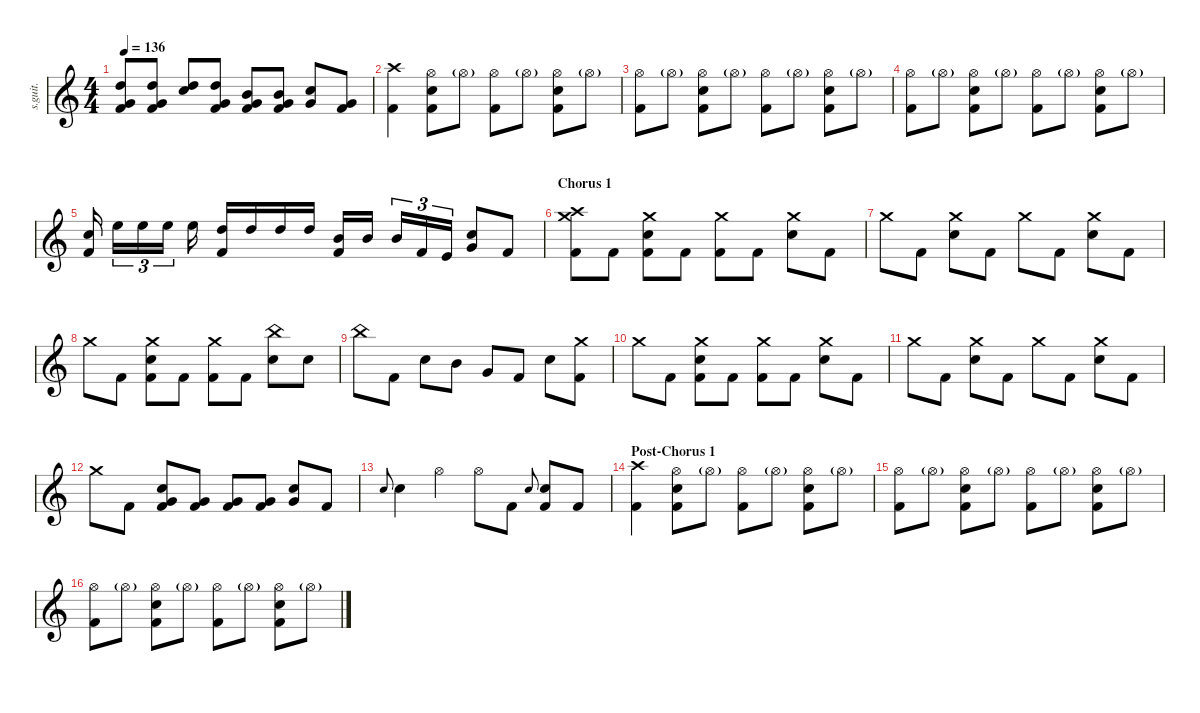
\defaultSystemsLayout 4
\hideDynamics
\bracketExtendMode nobrackets
\track ("Joey Jordison" "s.guit.") {instrument percussion}
\staff {score}
\articulation defaults
\ts (4 4)
\tempo 136
\clef g2
\ks c
("Kick (hit) 2" "High Tom (hit)" "Very Low Tom (hit)").8{lyrics (0 "") lyrics (1 "") lyrics (2 "") lyrics (3 "") lyrics (4 "") dy fff} ("Kick (hit) 2" "High Tom (hit)" "Very Low Tom (hit)").8{lyrics (0 "") lyrics (1 "") lyrics (2 "") lyrics (3 "") lyrics (4 "")} ("Snare (hit) 2" "High Tom (hit)").8{lyrics (0 "") lyrics (1 "") lyrics (2 "") lyrics (3 "") lyrics (4 "")} ("Kick (hit) 2" "High Tom (hit)" "Very Low Tom (hit)").8{lyrics (0 "") lyrics (1 "") lyrics (2 "") lyrics (3 "") lyrics (4 "")} ("Kick (hit) 2" "Mid Tom (hit)" "Very Low Tom (hit)").8{lyrics (0 "") lyrics (1 "") lyrics (2 "") lyrics (3 "") lyrics (4 "")} ("Kick (hit) 2" "Mid Tom (hit)" "Very Low Tom (hit)").8{lyrics (0 "") lyrics (1 "") lyrics (2 "") lyrics (3 "") lyrics (4 "")} ("Snare (hit) 2" "Very Low Tom (hit)").8{lyrics (0 "") lyrics (1 "") lyrics (2 "") lyrics (3 "") lyrics (4 "")} ("Kick (hit) 2" "Very Low Tom (hit)").8{lyrics (0 "") lyrics (1 "") lyrics (2 "") lyrics (3 "") lyrics (4 "")} |
("Crash high (hit)" "Kick (hit) 2").4{lyrics (0 "") lyrics (1 "") lyrics (2 "") lyrics (3 "") lyrics (4 "")} ("Hi-Hat (open)" "Kick (hit) 2" "Snare (hit) 2").8{lyrics (0 "") lyrics (1 "") lyrics (2 "") lyrics (3 "") lyrics (4 "")} "Hi-Hat (open)"{g}.8{lyrics (0 "") lyrics (1 "") lyrics (2 "") lyrics (3 "") lyrics (4 "")} ("Hi-Hat (open)" "Kick (hit) 2").8{lyrics (0 "") lyrics (1 "") lyrics (2 "") lyrics (3 "") lyrics (4 "")} "Hi-Hat (open)"{g}.8{lyrics (0 "") lyrics (1 "") lyrics (2 "") lyrics (3 "") lyrics (4 "")} ("Hi-Hat (open)" "Kick (hit) 2" "Snare (hit) 2").8{lyrics (0 "") lyrics (1 "") lyrics (2 "") lyrics (3 "") lyrics (4 "")} "Hi-Hat (open)"{g}.8{lyrics (0 "") lyrics (1 "") lyrics (2 "") lyrics (3 "") lyrics (4 "")} |
("Hi-Hat (open)" "Kick (hit) 2").8{lyrics (0 "") lyrics (1 "") lyrics (2 "") lyrics (3 "") lyrics (4 "")} "Hi-Hat (open)"{g}.8{lyrics (0 "") lyrics (1 "") lyrics (2 "") lyrics (3 "") lyrics (4 "")} ("Hi-Hat (open)" "Kick (hit) 2" "Snare (hit) 2").8{lyrics (0 "") lyrics (1 "") lyrics (2 "") lyrics (3 "") lyrics (4 "")} "Hi-Hat (open)"{g}.8{lyrics (0 "") lyrics (1 "") lyrics (2 "") lyrics (3 "") lyrics (4 "")} ("Hi-Hat (open)" "Kick (hit) 2").8{lyrics (0 "") lyrics (1 "") lyrics (2 "") lyrics (3 "") lyrics (4 "")} "Hi-Hat (open)"{g}.8{lyrics (0 "") lyrics (1 "") lyrics (2 "") lyrics (3 "") lyrics (4 "")} ("Hi-Hat (open)" "Kick (hit) 2" "Snare (hit) 2").8{lyrics (0 "") lyrics (1 "") lyrics (2 "") lyrics (3 "") lyrics (4 "")} "Hi-Hat (open)"{g}.8{lyrics (0 "") lyrics (1 "") lyrics (2 "") lyrics (3 "") lyrics (4 "")} |
("Hi-Hat (open)" "Kick (hit) 2").8{lyrics (0 "") lyrics (1 "") lyrics (2 "") lyrics (3 "") lyrics (4 "")} "Hi-Hat (open)"{g}.8{lyrics (0 "") lyrics (1 "") lyrics (2 "") lyrics (3 "") lyrics (4 "")} ("Hi-Hat (open)" "Kick (hit) 2" "Snare (hit) 2").8{lyrics (0 "") lyrics (1 "") lyrics (2 "") lyrics (3 "") lyrics (4 "")} "Hi-Hat (open)"{g}.8{lyrics (0 "") lyrics (1 "") lyrics (2 "") lyrics (3 "") lyrics (4 "")} ("Hi-Hat (open)" "Kick (hit) 2").8{lyrics (0 "") lyrics (1 "") lyrics (2 "") lyrics (3 "") lyrics (4 "")} "Hi-Hat (open)"{g}.8{lyrics (0 "") lyrics (1 "") lyrics (2 "") lyrics (3 "") lyrics (4 "")} ("Hi-Hat (open)" "Kick (hit) 2" "Snare (hit) 2").8{lyrics (0 "") lyrics (1 "") lyrics (2 "") lyrics (3 "") lyrics (4 "")} "Hi-Hat (open)"{g}.8{lyrics (0 "") lyrics (1 "") lyrics (2 "") lyrics (3 "") lyrics (4 "")} |
("Snare (hit) 2" "Kick (hit) 2").16{lyrics (0 "") lyrics (1 "") lyrics (2 "") lyrics (3 "") lyrics (4 "")} "High Floor Tom (hit)".16{tu (3 2) lyrics (0 "") lyrics (1 "") lyrics (2 "") lyrics (3 "") lyrics (4 "")} "High Floor Tom (hit)".16{tu (3 2) lyrics (0 "") lyrics (1 "") lyrics (2 "") lyrics (3 "") lyrics (4 "")} "High Floor Tom (hit)".16{tu (3 2) lyrics (0 "") lyrics (1 "") lyrics (2 "") lyrics (3 "") lyrics (4 "")} "High Floor Tom (hit)".16{lyrics (0 "") lyrics (1 "") lyrics (2 "") lyrics (3 "") lyrics (4 "")} ("High Tom (hit)" "Kick (hit) 2").16{lyrics (0 "") lyrics (1 "") lyrics (2 "") lyrics (3 "") lyrics (4 "")} "High Tom (hit)".16{lyrics (0 "") lyrics (1 "") lyrics (2 "") lyrics (3 "") lyrics (4 "")} "High Tom (hit)".16{lyrics (0 "") lyrics (1 "") lyrics (2 "") lyrics (3 "") lyrics (4 "")} "High Tom (hit)".16{lyrics (0 "") lyrics (1 "") lyrics (2 "") lyrics (3 "") lyrics (4 "")} ("Kick (hit) 2" "Mid Tom (hit)").16{lyrics (0 "") lyrics (1 "") lyrics (2 "") lyrics (3 "") lyrics (4 "")} "Mid Tom (hit)".16{lyrics (0 "") lyrics (1 "") lyrics (2 "") lyrics (3 "") lyrics (4 "")} "Mid Tom (hit)".16{tu (3 2) lyrics (0 "") lyrics (1 "") lyrics (2 "") lyrics (3 "") lyrics (4 "")} "Kick (hit) 2".16{tu (3 2) lyrics (0 "") lyrics (1 "") lyrics (2 "") lyrics (3 "") lyrics (4 "")} "Kick (hit)".16{tu (3 2) lyrics (0 "") lyrics (1 "") lyrics (2 "") lyrics (3 "") lyrics (4 "")} ("Snare (hit) 2" "Very Low Tom (hit)").8{lyrics (0 "") lyrics (1 "") lyrics (2 "") lyrics (3 "") lyrics (4 "")} "Kick (hit) 2".8{lyrics (0 "") lyrics (1 "") lyrics (2 "") lyrics (3 "") lyrics (4 "")} |
\section ("" "Chorus 1")
("Kick (hit) 2" "Crash high (hit)" "Crash medium (hit)").8{lyrics (0 "") lyrics (1 "") lyrics (2 "") lyrics (3 "") lyrics (4 "")} "Kick (hit) 2".8{lyrics (0 "") lyrics (1 "") lyrics (2 "") lyrics (3 "") lyrics (4 "")} ("Snare (hit) 2" "Kick (hit) 2" "Crash medium (hit)").8{lyrics (0 "") lyrics (1 "") lyrics (2 "") lyrics (3 "") lyrics (4 "")} "Kick (hit) 2".8{lyrics (0 "") lyrics (1 "") lyrics (2 "") lyrics (3 "") lyrics (4 "")} ("Kick (hit) 2" "Crash medium (hit)").8{lyrics (0 "") lyrics (1 "") lyrics (2 "") lyrics (3 "") lyrics (4 "")} "Kick (hit) 2".8{lyrics (0 "") lyrics (1 "") lyrics (2 "") lyrics (3 "") lyrics (4 "")} ("Snare (hit) 2" "Crash medium (hit)").8{lyrics (0 "") lyrics (1 "") lyrics (2 "") lyrics (3 "") lyrics (4 "")} "Kick (hit) 2".8{lyrics (0 "") lyrics (1 "") lyrics (2 "") lyrics (3 "") lyrics (4 "")} |
"Crash medium (hit)".8{lyrics (0 "") lyrics (1 "") lyrics (2 "") lyrics (3 "") lyrics (4 "")} "Kick (hit) 2".8{lyrics (0 "") lyrics (1 "") lyrics (2 "") lyrics (3 "") lyrics (4 "")} ("Snare (hit) 2" "Crash medium (hit)").8{lyrics (0 "") lyrics (1 "") lyrics (2 "") lyrics (3 "") lyrics (4 "")} "Kick (hit) 2".8{lyrics (0 "") lyrics (1 "") lyrics (2 "") lyrics (3 "") lyrics (4 "")} "Crash medium (hit)".8{lyrics (0 "") lyrics (1 "") lyrics (2 "") lyrics (3 "") lyrics (4 "")} "Kick (hit) 2".8{lyrics (0 "") lyrics (1 "") lyrics (2 "") lyrics (3 "") lyrics (4 "")} ("Snare (hit) 2" "Crash medium (hit)").8{lyrics (0 "") lyrics (1 "") lyrics (2 "") lyrics (3 "") lyrics (4 "")} "Kick (hit) 2".8{lyrics (0 "") lyrics (1 "") lyrics (2 "") lyrics (3 "") lyrics (4 "")} |
"Crash medium (hit)".8{lyrics (0 "") lyrics (1 "") lyrics (2 "") lyrics (3 "") lyrics (4 "")} "Kick (hit) 2".8{lyrics (0 "") lyrics (1 "") lyrics (2 "") lyrics (3 "") lyrics (4 "")} ("Snare (hit) 2" "Kick (hit) 2" "Crash medium (hit)").8{lyrics (0 "") lyrics (1 "") lyrics (2 "") lyrics (3 "") lyrics (4 "")} "Kick (hit) 2".8{lyrics (0 "") lyrics (1 "") lyrics (2 "") lyrics (3 "") lyrics (4 "")} ("Kick (hit) 2" "Crash medium (hit)").8{lyrics (0 "") lyrics (1 "") lyrics (2 "") lyrics (3 "") lyrics (4 "")} "Kick (hit) 2".8{lyrics (0 "") lyrics (1 "") lyrics (2 "") lyrics (3 "") lyrics (4 "")} ("Snare (hit) 2" "China (hit)").8{lyrics (0 "") lyrics (1 "") lyrics (2 "") lyrics (3 "") lyrics (4 "")} "Snare (hit) 2".8{lyrics (0 "") lyrics (1 "") lyrics (2 "") lyrics (3 "") lyrics (4 "")} |
"China (hit)".8{lyrics (0 "") lyrics (1 "") lyrics (2 "") lyrics (3 "") lyrics (4 "")} "Kick (hit) 2".8{lyrics (0 "") lyrics (1 "") lyrics (2 "") lyrics (3 "") lyrics (4 "")} "Snare (hit) 2".8{lyrics (0 "") lyrics (1 "") lyrics (2 "") lyrics (3 "") lyrics (4 "")} "Mid Tom (hit)".8{lyrics (0 "") lyrics (1 "") lyrics (2 "") lyrics (3 "") lyrics (4 "")} "Very Low Tom (hit)".8{lyrics (0 "") lyrics (1 "") lyrics (2 "") lyrics (3 "") lyrics (4 "")} "Kick (hit) 2".8{lyrics (0 "") lyrics (1 "") lyrics (2 "") lyrics (3 "") lyrics (4 "")} "Snare (hit) 2".8{lyrics (0 "") lyrics (1 "") lyrics (2 "") lyrics (3 "") lyrics (4 "")} ("Kick (hit) 2" "Crash medium (hit)").8{lyrics (0 "") lyrics (1 "") lyrics (2 "") lyrics (3 "") lyrics (4 "")} |
"Crash medium (hit)".8{lyrics (0 "") lyrics (1 "") lyrics (2 "") lyrics (3 "") lyrics (4 "")} "Kick (hit) 2".8{lyrics (0 "") lyrics (1 "") lyrics (2 "") lyrics (3 "") lyrics (4 "")} ("Snare (hit) 2" "Kick (hit) 2" "Crash medium (hit)").8{lyrics (0 "") lyrics (1 "") lyrics (2 "") lyrics (3 "") lyrics (4 "")} "Kick (hit) 2".8{lyrics (0 "") lyrics (1 "") lyrics (2 "") lyrics (3 "") lyrics (4 "")} ("Kick (hit) 2" "Crash medium (hit)").8{lyrics (0 "") lyrics (1 "") lyrics (2 "") lyrics (3 "") lyrics (4 "")} "Kick (hit) 2".8{lyrics (0 "") lyrics (1 "") lyrics (2 "") lyrics (3 "") lyrics (4 "")} ("Snare (hit) 2" "Crash medium (hit)").8{lyrics (0 "") lyrics (1 "") lyrics (2 "") lyrics (3 "") lyrics (4 "")} "Kick (hit) 2".8{lyrics (0 "") lyrics (1 "") lyrics (2 "") lyrics (3 "") lyrics (4 "")} |
"Crash medium (hit)".8{lyrics (0 "") lyrics (1 "") lyrics (2 "") lyrics (3 "") lyrics (4 "")} "Kick (hit) 2".8{lyrics (0 "") lyrics (1 "") lyrics (2 "") lyrics (3 "") lyrics (4 "")} ("Snare (hit) 2" "Crash medium (hit)").8{lyrics (0 "") lyrics (1 "") lyrics (2 "") lyrics (3 "") lyrics (4 "")} "Kick (hit) 2".8{lyrics (0 "") lyrics (1 "") lyrics (2 "") lyrics (3 "") lyrics (4 "")} "Crash medium (hit)".8{lyrics (0 "") lyrics (1 "") lyrics (2 "") lyrics (3 "") lyrics (4 "")} "Kick (hit) 2".8{lyrics (0 "") lyrics (1 "") lyrics (2 "") lyrics (3 "") lyrics (4 "")} ("Snare (hit) 2" "Crash medium (hit)").8{lyrics (0 "") lyrics (1 "") lyrics (2 "") lyrics (3 "") lyrics (4 "")} "Kick (hit) 2".8{lyrics (0 "") lyrics (1 "") lyrics (2 "") lyrics (3 "") lyrics (4 "")} |
"Crash medium (hit)".8{lyrics (0 "") lyrics (1 "") lyrics (2 "") lyrics (3 "") lyrics (4 "")} "Kick (hit) 2".8{lyrics (0 "") lyrics (1 "") lyrics (2 "") lyrics (3 "") lyrics (4 "")} ("Snare (hit) 2" "Kick (hit) 2" "Very Low Tom (hit)").8{lyrics (0 "") lyrics (1 "") lyrics (2 "") lyrics (3 "") lyrics (4 "")} ("Kick (hit) 2" "Very Low Tom (hit)").8{lyrics (0 "") lyrics (1 "") lyrics (2 "") lyrics (3 "") lyrics (4 "")} ("Kick (hit) 2" "Very Low Tom (hit)").8{lyrics (0 "") lyrics (1 "") lyrics (2 "") lyrics (3 "") lyrics (4 "")} ("Kick (hit) 2" "Very Low Tom (hit)").8{lyrics (0 "") lyrics (1 "") lyrics (2 "") lyrics (3 "") lyrics (4 "")} ("Snare (hit) 2" "Very Low Tom (hit)").8{lyrics (0 "") lyrics (1 "") lyrics (2 "") lyrics (3 "") lyrics (4 "")} "Kick (hit) 2".8{lyrics (0 "") lyrics (1 "") lyrics (2 "") lyrics (3 "") lyrics (4 "")} |
"Snare (hit) 2".8{lyrics (0 "") lyrics (1 "") lyrics (2 "") lyrics (3 "") lyrics (4 "") gr onbeat} "Snare (hit) 2".4{lyrics (0 "") lyrics (1 "") lyrics (2 "") lyrics (3 "") lyrics (4 "")} "Hi-Hat (open)".4{lyrics (0 "") lyrics (1 "") lyrics (2 "") lyrics (3 "") lyrics (4 "")} "Hi-Hat (open)".8{lyrics (0 "") lyrics (1 "") lyrics (2 "") lyrics (3 "") lyrics (4 "")} "Kick (hit) 2".8{lyrics (0 "") lyrics (1 "") lyrics (2 "") lyrics (3 "") lyrics (4 "")} "Snare (hit) 2".8{lyrics (0 "") lyrics (1 "") lyrics (2 "") lyrics (3 "") lyrics (4 "") gr onbeat} ("Snare (hit) 2" "Kick (hit) 2").8{lyrics (0 "") lyrics (1 "") lyrics (2 "") lyrics (3 "") lyrics (4 "")} "Kick (hit) 2".8{lyrics (0 "") lyrics (1 "") lyrics (2 "") lyrics (3 "") lyrics (4 "")} |
\section ("" "Post-Chorus 1")
("Crash high (hit)" "Kick (hit) 2").4{lyrics (0 "") lyrics (1 "") lyrics (2 "") lyrics (3 "") lyrics (4 "")} ("Hi-Hat (open)" "Kick (hit) 2" "Snare (hit) 2").8{lyrics (0 "") lyrics (1 "") lyrics (2 "") lyrics (3 "") lyrics (4 "")} "Hi-Hat (open)"{g}.8{lyrics (0 "") lyrics (1 "") lyrics (2 "") lyrics (3 "") lyrics (4 "")} ("Hi-Hat (open)" "Kick (hit) 2").8{lyrics (0 "") lyrics (1 "") lyrics (2 "") lyrics (3 "") lyrics (4 "")} "Hi-Hat (open)"{g}.8{lyrics (0 "") lyrics (1 "") lyrics (2 "") lyrics (3 "") lyrics (4 "")} ("Hi-Hat (open)" "Kick (hit) 2" "Snare (hit) 2").8{lyrics (0 "") lyrics (1 "") lyrics (2 "") lyrics (3 "") lyrics (4 "")} "Hi-Hat (open)"{g}.8{lyrics (0 "") lyrics (1 "") lyrics (2 "") lyrics (3 "") lyrics (4 "")} |
("Hi-Hat (open)" "Kick (hit) 2").8{lyrics (0 "") lyrics (1 "") lyrics (2 "") lyrics (3 "") lyrics (4 "")} "Hi-Hat (open)"{g}.8{lyrics (0 "") lyrics (1 "") lyrics (2 "") lyrics (3 "") lyrics (4 "")} ("Hi-Hat (open)" "Kick (hit) 2" "Snare (hit) 2").8{lyrics (0 "") lyrics (1 "") lyrics (2 "") lyrics (3 "") lyrics (4 "")} "Hi-Hat (open)"{g}.8{lyrics (0 "") lyrics (1 "") lyrics (2 "") lyrics (3 "") lyrics (4 "")} ("Hi-Hat (open)" "Kick (hit) 2").8{lyrics (0 "") lyrics (1 "") lyrics (2 "") lyrics (3 "") lyrics (4 "")} "Hi-Hat (open)"{g}.8{lyrics (0 "") lyrics (1 "") lyrics (2 "") lyrics (3 "") lyrics (4 "")} ("Hi-Hat (open)" "Kick (hit) 2" "Snare (hit) 2").8{lyrics (0 "") lyrics (1 "") lyrics (2 "") lyrics (3 "") lyrics (4 "")} "Hi-Hat (open)"{g}.8{lyrics (0 "") lyrics (1 "") lyrics (2 "") lyrics (3 "") lyrics (4 "")} |
("Hi-Hat (open)" "Kick (hit) 2").8{lyrics (0 "") lyrics (1 "") lyrics (2 "") lyrics (3 "") lyrics (4 "")} "Hi-Hat (open)"{g}.8{lyrics (0 "") lyrics (1 "") lyrics (2 "") lyrics (3 "") lyrics (4 "")} ("Hi-Hat (open)" "Kick (hit) 2" "Snare (hit) 2").8{lyrics (0 "") lyrics (1 "") lyrics (2 "") lyrics (3 "") lyrics (4 "")} "Hi-Hat (open)"{g}.8{lyrics (0 "") lyrics (1 "") lyrics (2 "") lyrics (3 "") lyrics (4 "")} ("Hi-Hat (open)" "Kick (hit) 2").8{lyrics (0 "") lyrics (1 "") lyrics (2 "") lyrics (3 "") lyrics (4 "")} "Hi-Hat (open)"{g}.8{lyrics (0 "") lyrics (1 "") lyrics (2 "") lyrics (3 "") lyrics (4 "")} ("Hi-Hat (open)" "Kick (hit) 2" "Snare (hit) 2").8{lyrics (0 "") lyrics (1 "") lyrics (2 "") lyrics (3 "") lyrics (4 "")} "Hi-Hat (open)"{g}.8{lyrics (0 "") lyrics (1 "") lyrics (2 "") lyrics (3 "") lyrics (4 "")}
